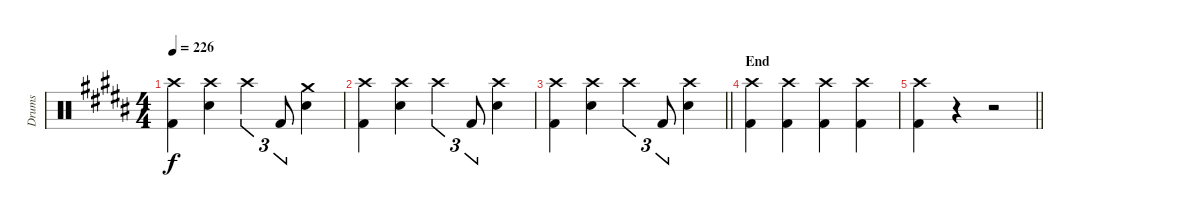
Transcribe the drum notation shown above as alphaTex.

\track ("Drums" "Drums") {instrument percussion}
\staff {score}
\articulation defaults
\ts (4 4)
\tempo 226
\clef neutral
\ks b
("Crash high (hit)" "Kick (hit) 2").4{dy f} ("Crash high (hit)" "Snare (hit) 2").4 "Crash high (hit)".4{tu (3 2)} "Kick (hit) 2".8{tu (3 2)} ("Crash medium (hit)" "Snare (hit) 2").4 |
("Crash high (hit)" "Kick (hit) 2").4 ("Crash high (hit)" "Snare (hit) 2").4 "Crash high (hit)".4{tu (3 2)} "Kick (hit) 2".8{tu (3 2)} ("Crash high (hit)" "Snare (hit) 2").4 |
\barLineRight lightlight
("Crash high (hit)" "Kick (hit) 2").4 ("Crash high (hit)" "Snare (hit) 2").4 "Crash high (hit)".4{tu (3 2)} "Kick (hit) 2".8{tu (3 2)} ("Crash high (hit)" "Snare (hit) 2").4 |
\section ("" "End")
("Crash high (hit)" "Kick (hit) 2").4 ("Crash high (hit)" "Kick (hit) 2").4 ("Crash high (hit)" "Kick (hit) 2").4 ("Crash high (hit)" "Kick (hit) 2").4 |
\barLineRight lightlight
("Crash high (hit)" "Kick (hit) 2").4 r.4 r.2
